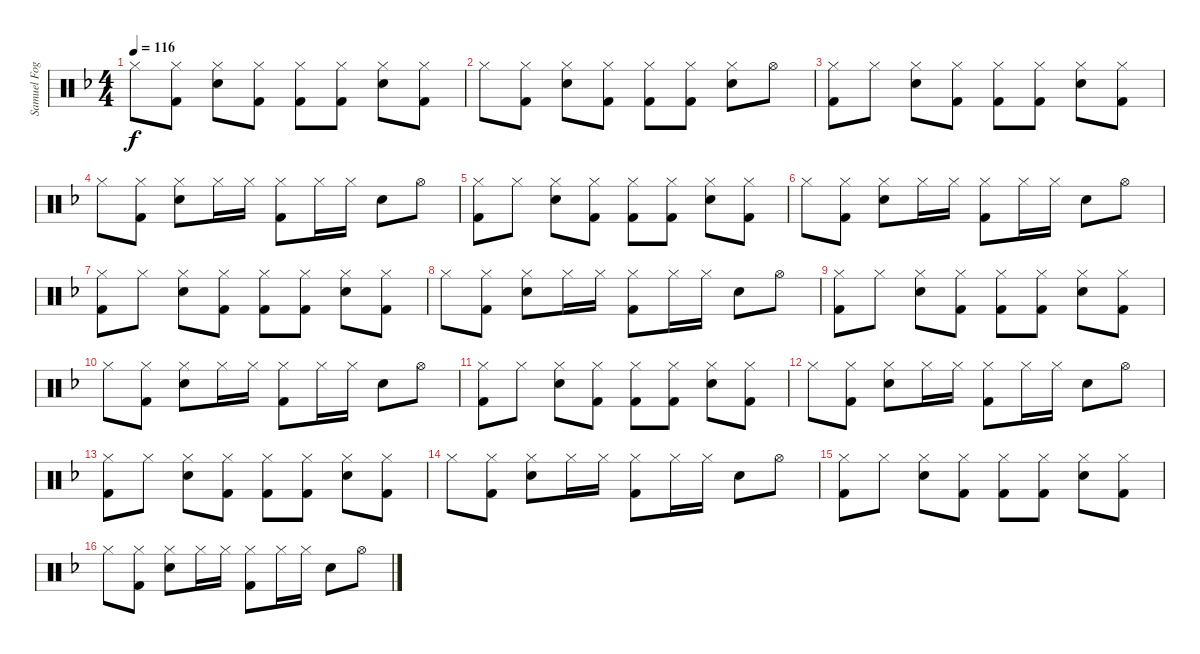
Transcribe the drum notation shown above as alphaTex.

\track ("Samuel Fogarino" "Samuel Fog") {instrument percussion}
\staff {score}
\articulation defaults
\ts (4 4)
\tempo 116
\clef neutral
\ks f "Hi-Hat (closed)".8{dy f}
("Hi-Hat (closed)" "Kick (hit) 2").8 ("Hi-Hat (closed)" "Snare (hit) 2").8 ("Hi-Hat (closed)" "Kick (hit) 2").8 ("Hi-Hat (closed)" "Kick (hit) 2").8 ("Hi-Hat (closed)" "Kick (hit) 2").8 ("Hi-Hat (closed)" "Snare (hit) 2").8 ("Hi-Hat (closed)" "Kick (hit) 2").8 |
"Hi-Hat (closed)".8 ("Hi-Hat (closed)" "Kick (hit) 2").8 ("Hi-Hat (closed)" "Snare (hit) 2").8 ("Hi-Hat (closed)" "Kick (hit) 2").8 ("Hi-Hat (closed)" "Kick (hit) 2").8 ("Hi-Hat (closed)" "Kick (hit) 2").8 ("Hi-Hat (closed)" "Snare (hit) 2").8 "Hi-Hat (open)".8 |
("Hi-Hat (closed)" "Kick (hit) 2").8 "Hi-Hat (closed)".8 ("Hi-Hat (closed)" "Snare (hit) 2").8 ("Hi-Hat (closed)" "Kick (hit) 2").8 ("Hi-Hat (closed)" "Kick (hit) 2").8 ("Hi-Hat (closed)" "Kick (hit) 2").8 ("Hi-Hat (closed)" "Snare (hit) 2").8 ("Hi-Hat (closed)" "Kick (hit) 2").8 |
"Hi-Hat (closed)".8 ("Hi-Hat (closed)" "Kick (hit) 2").8 ("Hi-Hat (closed)" "Snare (hit) 2").8 "Hi-Hat (closed)".16 "Hi-Hat (closed)".16 ("Hi-Hat (closed)" "Kick (hit) 2").8 "Hi-Hat (closed)".16 "Hi-Hat (closed)".16 "Snare (hit) 2".8 "Hi-Hat (open)".8 |
("Hi-Hat (closed)" "Kick (hit) 2").8 "Hi-Hat (closed)".8 ("Hi-Hat (closed)" "Snare (hit) 2").8 ("Hi-Hat (closed)" "Kick (hit) 2").8 ("Hi-Hat (closed)" "Kick (hit) 2").8 ("Hi-Hat (closed)" "Kick (hit) 2").8 ("Hi-Hat (closed)" "Snare (hit) 2").8 ("Hi-Hat (closed)" "Kick (hit) 2").8 |
"Hi-Hat (closed)".8 ("Hi-Hat (closed)" "Kick (hit) 2").8 ("Hi-Hat (closed)" "Snare (hit) 2").8 "Hi-Hat (closed)".16 "Hi-Hat (closed)".16 ("Hi-Hat (closed)" "Kick (hit) 2").8 "Hi-Hat (closed)".16 "Hi-Hat (closed)".16 "Snare (hit) 2".8 "Hi-Hat (open)".8 |
("Hi-Hat (closed)" "Kick (hit) 2").8 "Hi-Hat (closed)".8 ("Hi-Hat (closed)" "Snare (hit) 2").8 ("Hi-Hat (closed)" "Kick (hit) 2").8 ("Hi-Hat (closed)" "Kick (hit) 2").8 ("Hi-Hat (closed)" "Kick (hit) 2").8 ("Hi-Hat (closed)" "Snare (hit) 2").8 ("Hi-Hat (closed)" "Kick (hit) 2").8 |
"Hi-Hat (closed)".8 ("Hi-Hat (closed)" "Kick (hit) 2").8 ("Hi-Hat (closed)" "Snare (hit) 2").8 "Hi-Hat (closed)".16 "Hi-Hat (closed)".16 ("Hi-Hat (closed)" "Kick (hit) 2").8 "Hi-Hat (closed)".16 "Hi-Hat (closed)".16 "Snare (hit) 2".8 "Hi-Hat (open)".8 |
("Hi-Hat (closed)" "Kick (hit) 2").8 "Hi-Hat (closed)".8 ("Hi-Hat (closed)" "Snare (hit) 2").8 ("Hi-Hat (closed)" "Kick (hit) 2").8 ("Hi-Hat (closed)" "Kick (hit) 2").8 ("Hi-Hat (closed)" "Kick (hit) 2").8 ("Hi-Hat (closed)" "Snare (hit) 2").8 ("Hi-Hat (closed)" "Kick (hit) 2").8 |
"Hi-Hat (closed)".8 ("Hi-Hat (closed)" "Kick (hit) 2").8 ("Hi-Hat (closed)" "Snare (hit) 2").8 "Hi-Hat (closed)".16 "Hi-Hat (closed)".16 ("Hi-Hat (closed)" "Kick (hit) 2").8 "Hi-Hat (closed)".16 "Hi-Hat (closed)".16 "Snare (hit) 2".8 "Hi-Hat (open)".8 |
("Hi-Hat (closed)" "Kick (hit) 2").8 "Hi-Hat (closed)".8 ("Hi-Hat (closed)" "Snare (hit) 2").8 ("Hi-Hat (closed)" "Kick (hit) 2").8 ("Hi-Hat (closed)" "Kick (hit) 2").8 ("Hi-Hat (closed)" "Kick (hit) 2").8 ("Hi-Hat (closed)" "Snare (hit) 2").8 ("Hi-Hat (closed)" "Kick (hit) 2").8 |
"Hi-Hat (closed)".8 ("Hi-Hat (closed)" "Kick (hit) 2").8 ("Hi-Hat (closed)" "Snare (hit) 2").8 "Hi-Hat (closed)".16 "Hi-Hat (closed)".16 ("Hi-Hat (closed)" "Kick (hit) 2").8 "Hi-Hat (closed)".16 "Hi-Hat (closed)".16 "Snare (hit) 2".8 "Hi-Hat (open)".8 |
("Hi-Hat (closed)" "Kick (hit) 2").8 "Hi-Hat (closed)".8 ("Hi-Hat (closed)" "Snare (hit) 2").8 ("Hi-Hat (closed)" "Kick (hit) 2").8 ("Hi-Hat (closed)" "Kick (hit) 2").8 ("Hi-Hat (closed)" "Kick (hit) 2").8 ("Hi-Hat (closed)" "Snare (hit) 2").8 ("Hi-Hat (closed)" "Kick (hit) 2").8 |
"Hi-Hat (closed)".8 ("Hi-Hat (closed)" "Kick (hit) 2").8 ("Hi-Hat (closed)" "Snare (hit) 2").8 "Hi-Hat (closed)".16 "Hi-Hat (closed)".16 ("Hi-Hat (closed)" "Kick (hit) 2").8 "Hi-Hat (closed)".16 "Hi-Hat (closed)".16 "Snare (hit) 2".8 "Hi-Hat (open)".8 |
("Hi-Hat (closed)" "Kick (hit) 2").8 "Hi-Hat (closed)".8 ("Hi-Hat (closed)" "Snare (hit) 2").8 ("Hi-Hat (closed)" "Kick (hit) 2").8 ("Hi-Hat (closed)" "Kick (hit) 2").8 ("Hi-Hat (closed)" "Kick (hit) 2").8 ("Hi-Hat (closed)" "Snare (hit) 2").8 ("Hi-Hat (closed)" "Kick (hit) 2").8 |
"Hi-Hat (closed)".8 ("Hi-Hat (closed)" "Kick (hit) 2").8 ("Hi-Hat (closed)" "Snare (hit) 2").8 "Hi-Hat (closed)".16 "Hi-Hat (closed)".16 ("Hi-Hat (closed)" "Kick (hit) 2").8 "Hi-Hat (closed)".16 "Hi-Hat (closed)".16 "Snare (hit) 2".8 "Hi-Hat (open)".8
